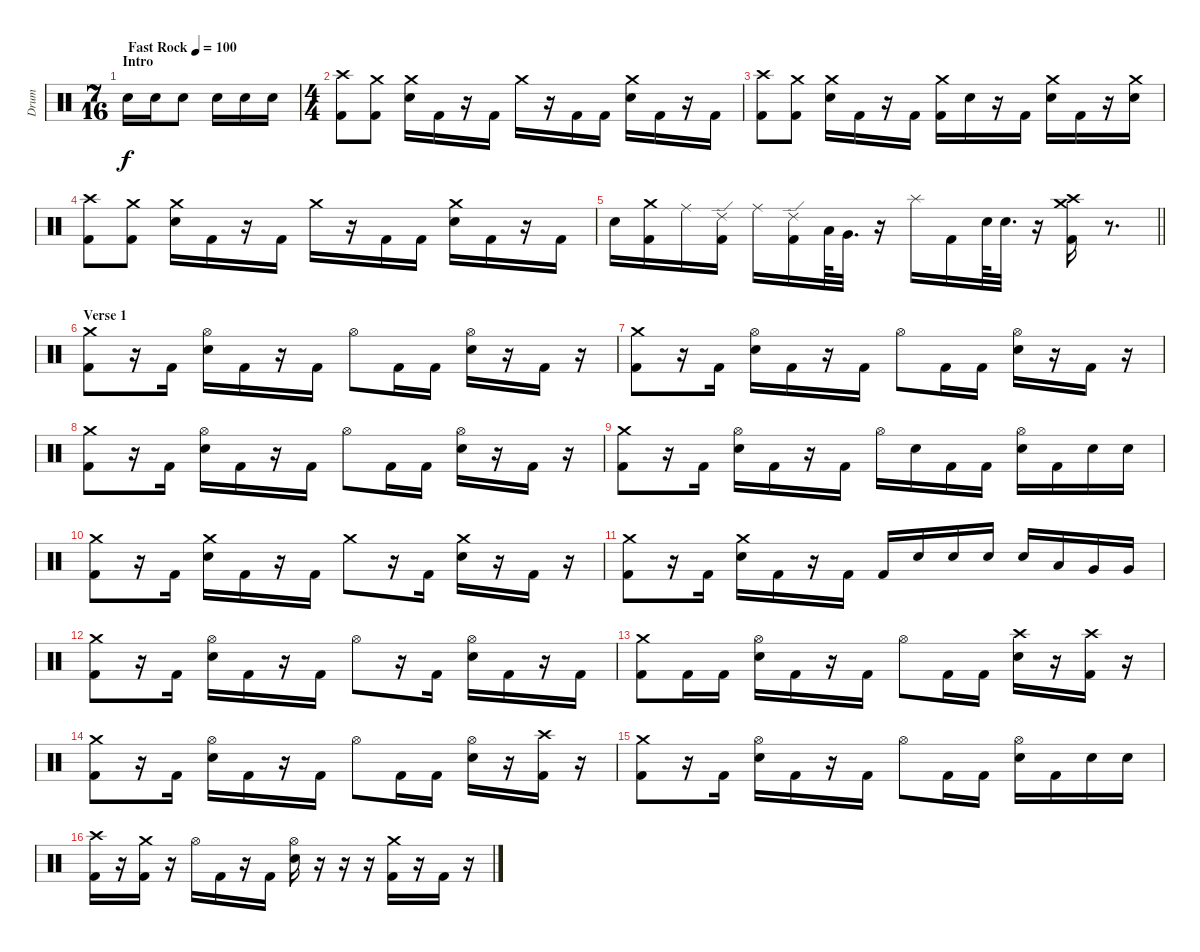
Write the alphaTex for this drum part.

\track ("Drum" "Drum") {instrument percussion}
\staff {score}
\articulation defaults
\ts (7 16)
\section ("" "Intro")
\tempo (100 "Fast Rock")
\clef neutral
\ks c "Electric Snare (hit)".16{dy f} "Electric Snare (hit)".16 "Electric Snare (hit)".8 "Electric Snare (hit)".16 "Electric Snare (hit)".16 "Electric Snare (hit)".16
|
\ts (4 4)
("Crash high (hit)" "Kick (hit) 2").8 ("Crash medium (hit)" "Kick (hit) 2").8 ("Crash medium (hit)" "Electric Snare (hit)").16 "Kick (hit) 2".16 r.16 "Kick (hit) 2".16 "Crash medium (hit)".16 r.16 "Kick (hit) 2".16 "Kick (hit) 2".16 ("Crash medium (hit)" "Electric Snare (hit)").16 "Kick (hit) 2".16 r.16 "Kick (hit) 2".16 |
("Crash high (hit)" "Kick (hit) 2").8 ("Crash medium (hit)" "Kick (hit) 2").8 ("Crash medium (hit)" "Electric Snare (hit)").16 "Kick (hit) 2".16 r.16 "Kick (hit) 2".16 ("Crash medium (hit)" "Kick (hit) 2").16 "Electric Snare (hit)".16 r.16 "Kick (hit) 2".16 ("Crash medium (hit)" "Electric Snare (hit)").16 "Kick (hit) 2".16 r.16 ("Crash medium (hit)" "Electric Snare (hit)").16 |
("Crash high (hit)" "Kick (hit) 2").8 ("Crash medium (hit)" "Kick (hit) 2").8 ("Crash medium (hit)" "Electric Snare (hit)").16 "Kick (hit) 2".16 r.16 "Kick (hit) 2".16 "Crash medium (hit)".16 r.16 "Kick (hit) 2".16 "Kick (hit) 2".16 ("Crash medium (hit)" "Electric Snare (hit)").16 "Kick (hit) 2".16 r.16 "Kick (hit) 2".16 |
\barLineRight lightlight "Electric Snare (hit)".16
("Crash medium (hit)" "Kick (hit) 2").16 "Ride (middle)".16 ("Ride (edge) 2" "Kick (hit) 2").16 "Ride (middle)".16 ("Ride (edge) 2" "Kick (hit) 2").16 "Low Tom (hit)".64 "Very Low Tom (hit)".32{d} r.16 "Splash (hit)".16 "Kick (hit) 2".16 "Electric Snare (hit)".64 "Electric Snare (hit)".32{d} r.16 ("Crash high (hit)" "Crash medium (hit)" "Kick (hit) 2").16 r.8{d} |
\section ("" "Verse 1")
("Crash medium (hit)" "Kick (hit) 2").8 r.16 "Kick (hit) 2".16 ("Hi-Hat (open)" "Electric Snare (hit)").16 "Kick (hit) 2".16 r.16 "Kick (hit) 2".16 "Hi-Hat (open)".8 "Kick (hit) 2".16 "Kick (hit) 2".16 ("Hi-Hat (open)" "Electric Snare (hit)").16 r.16 "Kick (hit) 2".16 r.16 |
("Crash medium (hit)" "Kick (hit) 2").8 r.16 "Kick (hit) 2".16 ("Hi-Hat (open)" "Electric Snare (hit)").16 "Kick (hit) 2".16 r.16 "Kick (hit) 2".16 "Hi-Hat (open)".8 "Kick (hit) 2".16 "Kick (hit) 2".16 ("Hi-Hat (open)" "Electric Snare (hit)").16 r.16 "Kick (hit) 2".16 r.16 |
("Crash medium (hit)" "Kick (hit) 2").8 r.16 "Kick (hit) 2".16 ("Hi-Hat (open)" "Electric Snare (hit)").16 "Kick (hit) 2".16 r.16 "Kick (hit) 2".16 "Hi-Hat (open)".8 "Kick (hit) 2".16 "Kick (hit) 2".16 ("Hi-Hat (open)" "Electric Snare (hit)").16 r.16 "Kick (hit) 2".16 r.16 |
("Crash medium (hit)" "Kick (hit) 2").8 r.16 "Kick (hit) 2".16 ("Hi-Hat (open)" "Electric Snare (hit)").16 "Kick (hit) 2".16 r.16 "Kick (hit) 2".16 "Hi-Hat (open)".16 "Electric Snare (hit)".16 "Kick (hit) 2".16 "Kick (hit) 2".16 ("Hi-Hat (open)" "Electric Snare (hit)").16 "Kick (hit) 2".16 "Electric Snare (hit)".16 "Electric Snare (hit)".16 |
("Crash medium (hit)" "Kick (hit) 2").8 r.16 "Kick (hit) 2".16 ("Crash medium (hit)" "Electric Snare (hit)").16 "Kick (hit) 2".16 r.16 "Kick (hit) 2".16 "Crash medium (hit)".8 r.16 "Kick (hit) 2".16 ("Crash medium (hit)" "Electric Snare (hit)").16 r.16 "Kick (hit) 2".16 r.16 |
("Crash medium (hit)" "Kick (hit) 2").8 r.16 "Kick (hit) 2".16 ("Crash medium (hit)" "Electric Snare (hit)").16 "Kick (hit) 2".16 r.16 "Kick (hit) 2".16 "Kick (hit) 2".16 "Electric Snare (hit)".16 "Electric Snare (hit)".16 "Electric Snare (hit)".16 "Electric Snare (hit)".16 "Low Tom (hit)".16 "Very Low Tom (hit)".16 "Very Low Tom (hit)".16 |
("Crash medium (hit)" "Kick (hit) 2").8 r.16 "Kick (hit) 2".16 ("Hi-Hat (open)" "Electric Snare (hit)").16 "Kick (hit) 2".16 r.16 "Kick (hit) 2".16 "Hi-Hat (open)".8 r.16 "Kick (hit) 2".16 ("Hi-Hat (open)" "Electric Snare (hit)").16 "Kick (hit) 2".16 r.16 "Kick (hit) 2".16 |
("Crash medium (hit)" "Kick (hit) 2").8 "Kick (hit) 2".16 "Kick (hit) 2".16 ("Hi-Hat (open)" "Electric Snare (hit)").16 "Kick (hit) 2".16 r.16 "Kick (hit) 2".16 "Hi-Hat (open)".8 "Kick (hit) 2".16 "Kick (hit) 2".16 ("Crash high (hit)" "Electric Snare (hit)").16 r.16 ("Crash high (hit)" "Kick (hit) 2").16 r.16 |
("Crash medium (hit)" "Kick (hit) 2").8 r.16 "Kick (hit) 2".16 ("Hi-Hat (open)" "Electric Snare (hit)").16 "Kick (hit) 2".16 r.16 "Kick (hit) 2".16 "Hi-Hat (open)".8 "Kick (hit) 2".16 "Kick (hit) 2".16 ("Hi-Hat (open)" "Electric Snare (hit)").16 r.16 ("Crash high (hit)" "Kick (hit) 2").16 r.16 |
("Crash medium (hit)" "Kick (hit) 2").8 r.16 "Kick (hit) 2".16 ("Hi-Hat (open)" "Electric Snare (hit)").16 "Kick (hit) 2".16 r.16 "Kick (hit) 2".16 "Hi-Hat (open)".8 "Kick (hit) 2".16 "Kick (hit) 2".16 ("Hi-Hat (open)" "Electric Snare (hit)").16 "Kick (hit) 2".16 "Electric Snare (hit)".16 "Electric Snare (hit)".16 |
("Crash high (hit)" "Kick (hit) 2").16 r.16 ("Crash medium (hit)" "Kick (hit) 2").16 r.16 "Hi-Hat (open)".16 "Kick (hit) 2".16 r.16 "Kick (hit) 2".16 ("Hi-Hat (open)" "Electric Snare (hit)").16 r.16 r.16 r.16 ("Crash medium (hit)" "Kick (hit) 2").16 r.16 "Kick (hit) 2".16 r.16
